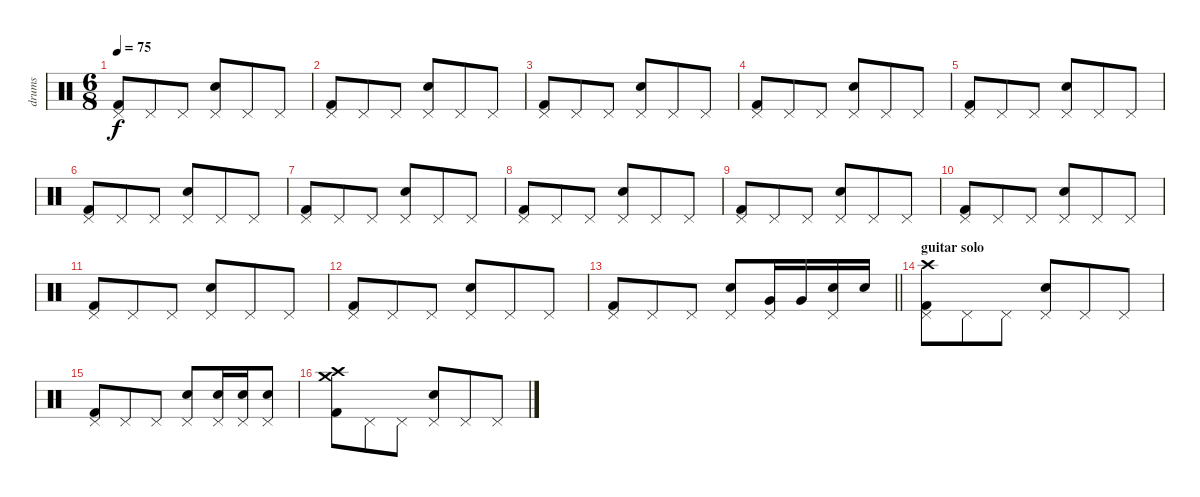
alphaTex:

\track ("drums" "drums") {instrument percussion}
\staff {score}
\articulation defaults
\ts (6 8)
\tempo 75
\clef neutral
\ks c
("Kick (hit) 2" "Pedal Hi-Hat (hit)").8{dy f} "Pedal Hi-Hat (hit)".8 "Pedal Hi-Hat (hit)".8 ("Electric Snare (hit)" "Pedal Hi-Hat (hit)").8 "Pedal Hi-Hat (hit)".8 "Pedal Hi-Hat (hit)".8 |
("Kick (hit) 2" "Pedal Hi-Hat (hit)").8 "Pedal Hi-Hat (hit)".8 "Pedal Hi-Hat (hit)".8 ("Electric Snare (hit)" "Pedal Hi-Hat (hit)").8 "Pedal Hi-Hat (hit)".8 "Pedal Hi-Hat (hit)".8 |
("Kick (hit) 2" "Pedal Hi-Hat (hit)").8 "Pedal Hi-Hat (hit)".8 "Pedal Hi-Hat (hit)".8 ("Electric Snare (hit)" "Pedal Hi-Hat (hit)").8 "Pedal Hi-Hat (hit)".8 "Pedal Hi-Hat (hit)".8 |
("Kick (hit) 2" "Pedal Hi-Hat (hit)").8 "Pedal Hi-Hat (hit)".8 "Pedal Hi-Hat (hit)".8 ("Electric Snare (hit)" "Pedal Hi-Hat (hit)").8 "Pedal Hi-Hat (hit)".8 "Pedal Hi-Hat (hit)".8 |
("Kick (hit) 2" "Pedal Hi-Hat (hit)").8 "Pedal Hi-Hat (hit)".8 "Pedal Hi-Hat (hit)".8 ("Electric Snare (hit)" "Pedal Hi-Hat (hit)").8 "Pedal Hi-Hat (hit)".8 "Pedal Hi-Hat (hit)".8 |
("Kick (hit) 2" "Pedal Hi-Hat (hit)").8 "Pedal Hi-Hat (hit)".8 "Pedal Hi-Hat (hit)".8 ("Electric Snare (hit)" "Pedal Hi-Hat (hit)").8 "Pedal Hi-Hat (hit)".8 "Pedal Hi-Hat (hit)".8 |
("Kick (hit) 2" "Pedal Hi-Hat (hit)").8 "Pedal Hi-Hat (hit)".8 "Pedal Hi-Hat (hit)".8 ("Electric Snare (hit)" "Pedal Hi-Hat (hit)").8 "Pedal Hi-Hat (hit)".8 "Pedal Hi-Hat (hit)".8 |
("Kick (hit) 2" "Pedal Hi-Hat (hit)").8 "Pedal Hi-Hat (hit)".8 "Pedal Hi-Hat (hit)".8 ("Electric Snare (hit)" "Pedal Hi-Hat (hit)").8 "Pedal Hi-Hat (hit)".8 "Pedal Hi-Hat (hit)".8 |
("Kick (hit) 2" "Pedal Hi-Hat (hit)").8 "Pedal Hi-Hat (hit)".8 "Pedal Hi-Hat (hit)".8 ("Electric Snare (hit)" "Pedal Hi-Hat (hit)").8 "Pedal Hi-Hat (hit)".8 "Pedal Hi-Hat (hit)".8 |
("Kick (hit) 2" "Pedal Hi-Hat (hit)").8 "Pedal Hi-Hat (hit)".8 "Pedal Hi-Hat (hit)".8 ("Electric Snare (hit)" "Pedal Hi-Hat (hit)").8 "Pedal Hi-Hat (hit)".8 "Pedal Hi-Hat (hit)".8 |
("Kick (hit) 2" "Pedal Hi-Hat (hit)").8 "Pedal Hi-Hat (hit)".8 "Pedal Hi-Hat (hit)".8 ("Electric Snare (hit)" "Pedal Hi-Hat (hit)").8 "Pedal Hi-Hat (hit)".8 "Pedal Hi-Hat (hit)".8 |
("Kick (hit) 2" "Pedal Hi-Hat (hit)").8 "Pedal Hi-Hat (hit)".8 "Pedal Hi-Hat (hit)".8 ("Electric Snare (hit)" "Pedal Hi-Hat (hit)").8 "Pedal Hi-Hat (hit)".8 "Pedal Hi-Hat (hit)".8 |
\barLineRight lightlight
("Kick (hit) 2" "Pedal Hi-Hat (hit)").8 "Pedal Hi-Hat (hit)".8 "Pedal Hi-Hat (hit)".8 ("Electric Snare (hit)" "Pedal Hi-Hat (hit)").8 ("Very Low Tom (hit)" "Pedal Hi-Hat (hit)").16 "Very Low Tom (hit)".16 ("Electric Snare (hit)" "Pedal Hi-Hat (hit)").16 "Electric Snare (hit)".16 |
\section ("" "guitar solo")
("Kick (hit) 2" "Pedal Hi-Hat (hit)" "Crash high (hit)").8 "Pedal Hi-Hat (hit)".8 "Pedal Hi-Hat (hit)".8 ("Electric Snare (hit)" "Pedal Hi-Hat (hit)").8 "Pedal Hi-Hat (hit)".8 "Pedal Hi-Hat (hit)".8 |
("Kick (hit) 2" "Pedal Hi-Hat (hit)").8 "Pedal Hi-Hat (hit)".8 "Pedal Hi-Hat (hit)".8 ("Electric Snare (hit)" "Pedal Hi-Hat (hit)").8 ("Electric Snare (hit)" "Pedal Hi-Hat (hit)").16 ("Electric Snare (hit)" "Pedal Hi-Hat (hit)").16 ("Electric Snare (hit)" "Pedal Hi-Hat (hit)").8 |
("Kick (hit) 2" "Crash medium (hit)" "Crash high (hit)").8 "Pedal Hi-Hat (hit)".8 "Pedal Hi-Hat (hit)".8 ("Electric Snare (hit)" "Pedal Hi-Hat (hit)").8 "Pedal Hi-Hat (hit)".8 "Pedal Hi-Hat (hit)".8
